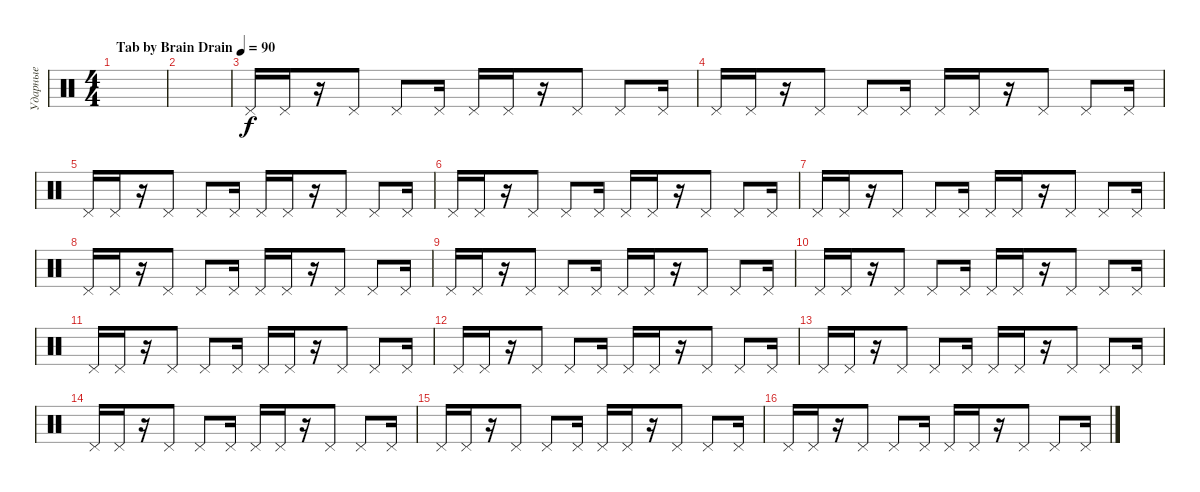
\track ("Ударные" "Ударные") {instrument percussion}
\staff {score}
\articulation defaults
\ts (4 4)
\tempo (90 "Tab by Brain Drain")
\clef neutral
\ks c
|
|
"Pedal Hi-Hat (hit)".16 "Pedal Hi-Hat (hit)".16 r.16 "Pedal Hi-Hat (hit)".8 "Pedal Hi-Hat (hit)".8 "Pedal Hi-Hat (hit)".16 "Pedal Hi-Hat (hit)".16 "Pedal Hi-Hat (hit)".16 r.16 "Pedal Hi-Hat (hit)".8 "Pedal Hi-Hat (hit)".8 "Pedal Hi-Hat (hit)".16 |
"Pedal Hi-Hat (hit)".16 "Pedal Hi-Hat (hit)".16 r.16 "Pedal Hi-Hat (hit)".8 "Pedal Hi-Hat (hit)".8 "Pedal Hi-Hat (hit)".16 "Pedal Hi-Hat (hit)".16 "Pedal Hi-Hat (hit)".16 r.16 "Pedal Hi-Hat (hit)".8 "Pedal Hi-Hat (hit)".8 "Pedal Hi-Hat (hit)".16 |
"Pedal Hi-Hat (hit)".16 "Pedal Hi-Hat (hit)".16 r.16 "Pedal Hi-Hat (hit)".8 "Pedal Hi-Hat (hit)".8 "Pedal Hi-Hat (hit)".16 "Pedal Hi-Hat (hit)".16 "Pedal Hi-Hat (hit)".16 r.16 "Pedal Hi-Hat (hit)".8 "Pedal Hi-Hat (hit)".8 "Pedal Hi-Hat (hit)".16 |
"Pedal Hi-Hat (hit)".16 "Pedal Hi-Hat (hit)".16 r.16 "Pedal Hi-Hat (hit)".8 "Pedal Hi-Hat (hit)".8 "Pedal Hi-Hat (hit)".16 "Pedal Hi-Hat (hit)".16 "Pedal Hi-Hat (hit)".16 r.16 "Pedal Hi-Hat (hit)".8 "Pedal Hi-Hat (hit)".8 "Pedal Hi-Hat (hit)".16 |
"Pedal Hi-Hat (hit)".16 "Pedal Hi-Hat (hit)".16 r.16 "Pedal Hi-Hat (hit)".8 "Pedal Hi-Hat (hit)".8 "Pedal Hi-Hat (hit)".16 "Pedal Hi-Hat (hit)".16 "Pedal Hi-Hat (hit)".16 r.16 "Pedal Hi-Hat (hit)".8 "Pedal Hi-Hat (hit)".8 "Pedal Hi-Hat (hit)".16 |
"Pedal Hi-Hat (hit)".16 "Pedal Hi-Hat (hit)".16 r.16 "Pedal Hi-Hat (hit)".8 "Pedal Hi-Hat (hit)".8 "Pedal Hi-Hat (hit)".16 "Pedal Hi-Hat (hit)".16 "Pedal Hi-Hat (hit)".16 r.16 "Pedal Hi-Hat (hit)".8 "Pedal Hi-Hat (hit)".8 "Pedal Hi-Hat (hit)".16 |
"Pedal Hi-Hat (hit)".16 "Pedal Hi-Hat (hit)".16 r.16 "Pedal Hi-Hat (hit)".8 "Pedal Hi-Hat (hit)".8 "Pedal Hi-Hat (hit)".16 "Pedal Hi-Hat (hit)".16 "Pedal Hi-Hat (hit)".16 r.16 "Pedal Hi-Hat (hit)".8 "Pedal Hi-Hat (hit)".8 "Pedal Hi-Hat (hit)".16 |
"Pedal Hi-Hat (hit)".16 "Pedal Hi-Hat (hit)".16 r.16 "Pedal Hi-Hat (hit)".8 "Pedal Hi-Hat (hit)".8 "Pedal Hi-Hat (hit)".16 "Pedal Hi-Hat (hit)".16 "Pedal Hi-Hat (hit)".16 r.16 "Pedal Hi-Hat (hit)".8 "Pedal Hi-Hat (hit)".8 "Pedal Hi-Hat (hit)".16 |
"Pedal Hi-Hat (hit)".16 "Pedal Hi-Hat (hit)".16 r.16 "Pedal Hi-Hat (hit)".8 "Pedal Hi-Hat (hit)".8 "Pedal Hi-Hat (hit)".16 "Pedal Hi-Hat (hit)".16 "Pedal Hi-Hat (hit)".16 r.16 "Pedal Hi-Hat (hit)".8 "Pedal Hi-Hat (hit)".8 "Pedal Hi-Hat (hit)".16 |
"Pedal Hi-Hat (hit)".16 "Pedal Hi-Hat (hit)".16 r.16 "Pedal Hi-Hat (hit)".8 "Pedal Hi-Hat (hit)".8 "Pedal Hi-Hat (hit)".16 "Pedal Hi-Hat (hit)".16 "Pedal Hi-Hat (hit)".16 r.16 "Pedal Hi-Hat (hit)".8 "Pedal Hi-Hat (hit)".8 "Pedal Hi-Hat (hit)".16 |
"Pedal Hi-Hat (hit)".16 "Pedal Hi-Hat (hit)".16 r.16 "Pedal Hi-Hat (hit)".8 "Pedal Hi-Hat (hit)".8 "Pedal Hi-Hat (hit)".16 "Pedal Hi-Hat (hit)".16 "Pedal Hi-Hat (hit)".16 r.16 "Pedal Hi-Hat (hit)".8 "Pedal Hi-Hat (hit)".8 "Pedal Hi-Hat (hit)".16 |
"Pedal Hi-Hat (hit)".16 "Pedal Hi-Hat (hit)".16 r.16 "Pedal Hi-Hat (hit)".8 "Pedal Hi-Hat (hit)".8 "Pedal Hi-Hat (hit)".16 "Pedal Hi-Hat (hit)".16 "Pedal Hi-Hat (hit)".16 r.16 "Pedal Hi-Hat (hit)".8 "Pedal Hi-Hat (hit)".8 "Pedal Hi-Hat (hit)".16 |
"Pedal Hi-Hat (hit)".16 "Pedal Hi-Hat (hit)".16 r.16 "Pedal Hi-Hat (hit)".8 "Pedal Hi-Hat (hit)".8 "Pedal Hi-Hat (hit)".16 "Pedal Hi-Hat (hit)".16 "Pedal Hi-Hat (hit)".16 r.16 "Pedal Hi-Hat (hit)".8 "Pedal Hi-Hat (hit)".8 "Pedal Hi-Hat (hit)".16 |
"Pedal Hi-Hat (hit)".16 "Pedal Hi-Hat (hit)".16 r.16 "Pedal Hi-Hat (hit)".8 "Pedal Hi-Hat (hit)".8 "Pedal Hi-Hat (hit)".16 "Pedal Hi-Hat (hit)".16 "Pedal Hi-Hat (hit)".16 r.16 "Pedal Hi-Hat (hit)".8 "Pedal Hi-Hat (hit)".8 "Pedal Hi-Hat (hit)".16
